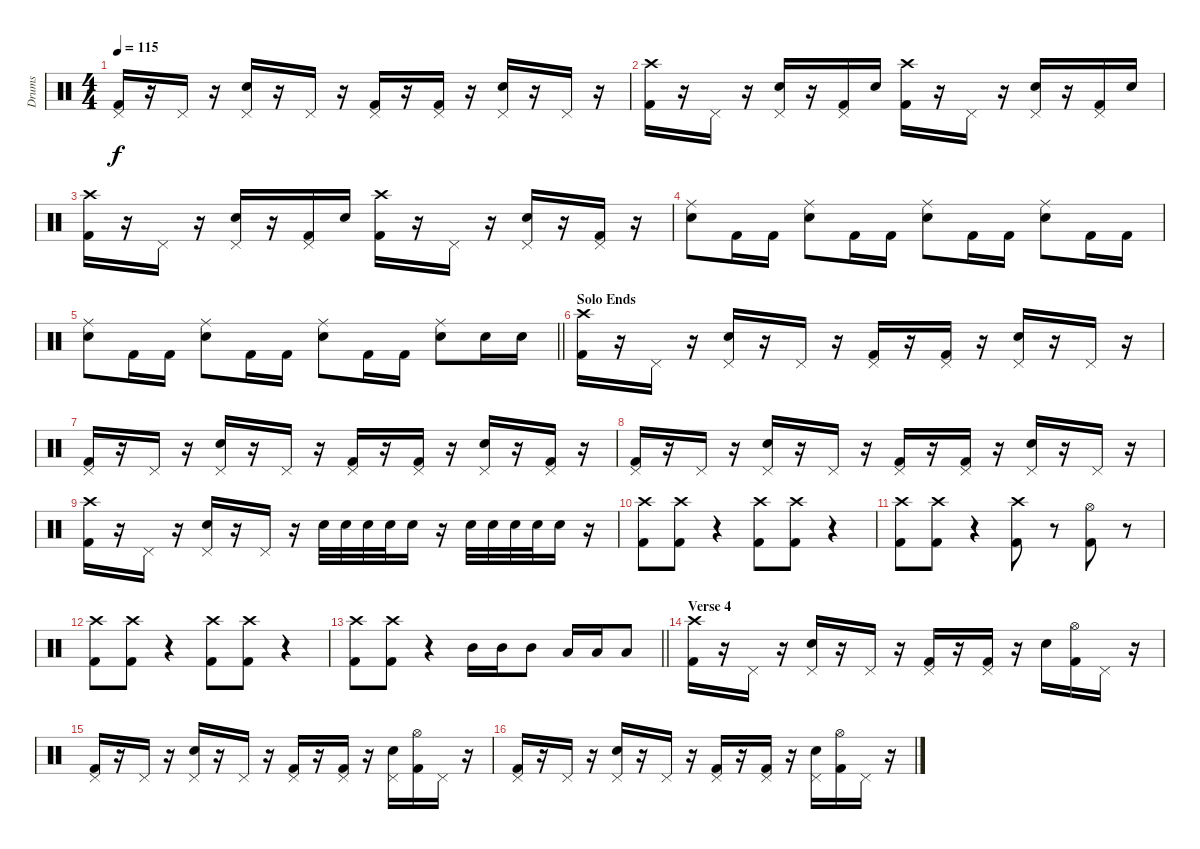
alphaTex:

\track ("Drums" "Drums") {instrument percussion}
\staff {score}
\articulation defaults
\ts (4 4)
\tempo 115
\clef neutral
\ks c
("Pedal Hi-Hat (hit)" "Kick (hit) 2").16{dy f} r.16 "Pedal Hi-Hat (hit)".16 r.16 ("Pedal Hi-Hat (hit)" "Snare (hit) 2").16 r.16 "Pedal Hi-Hat (hit)".16 r.16 ("Pedal Hi-Hat (hit)" "Kick (hit) 2").16 r.16 ("Pedal Hi-Hat (hit)" "Kick (hit) 2").16 r.16 ("Pedal Hi-Hat (hit)" "Snare (hit) 2").16 r.16 "Pedal Hi-Hat (hit)".16 r.16 |
("Crash high (hit)" "Kick (hit) 2").16 r.16 "Pedal Hi-Hat (hit)".16 r.16 ("Pedal Hi-Hat (hit)" "Snare (hit) 2").16 r.16 ("Pedal Hi-Hat (hit)" "Kick (hit) 2").16 "Snare (hit) 2".16 ("Crash high (hit)" "Kick (hit) 2").16 r.16 "Pedal Hi-Hat (hit)".16 r.16 ("Pedal Hi-Hat (hit)" "Snare (hit) 2").16 r.16 ("Pedal Hi-Hat (hit)" "Kick (hit) 2").16 "Snare (hit) 2".16 |
("Crash high (hit)" "Kick (hit) 2").16 r.16 "Pedal Hi-Hat (hit)".16 r.16 ("Pedal Hi-Hat (hit)" "Snare (hit) 2").16 r.16 ("Pedal Hi-Hat (hit)" "Kick (hit) 2").16 "Snare (hit) 2".16 ("Crash high (hit)" "Kick (hit) 2").16 r.16 "Pedal Hi-Hat (hit)".16 r.16 ("Pedal Hi-Hat (hit)" "Snare (hit) 2").16 r.16 ("Pedal Hi-Hat (hit)" "Kick (hit) 2").16 r.16 |
("Ride (middle)" "Snare (hit) 2").8 "Kick (hit) 2".16 "Kick (hit) 2".16 ("Ride (middle)" "Snare (hit) 2").8 "Kick (hit) 2".16 "Kick (hit) 2".16 ("Ride (middle)" "Snare (hit) 2").8 "Kick (hit) 2".16 "Kick (hit) 2".16 ("Ride (middle)" "Snare (hit) 2").8 "Kick (hit) 2".16 "Kick (hit) 2".16 |
\barLineRight lightlight
("Ride (middle)" "Snare (hit) 2").8 "Kick (hit) 2".16 "Kick (hit) 2".16 ("Ride (middle)" "Snare (hit) 2").8 "Kick (hit) 2".16 "Kick (hit) 2".16 ("Ride (middle)" "Snare (hit) 2").8 "Kick (hit) 2".16 "Kick (hit) 2".16 ("Ride (middle)" "Snare (hit) 2").8 "Snare (hit) 2".16 "Snare (hit) 2".16 |
\section ("" "Solo Ends")
("Crash high (hit)" "Kick (hit) 2").16 r.16 "Pedal Hi-Hat (hit)".16 r.16 ("Pedal Hi-Hat (hit)" "Snare (hit) 2").16 r.16 "Pedal Hi-Hat (hit)".16 r.16 ("Pedal Hi-Hat (hit)" "Kick (hit) 2").16 r.16 ("Pedal Hi-Hat (hit)" "Kick (hit) 2").16 r.16 ("Pedal Hi-Hat (hit)" "Snare (hit) 2").16 r.16 "Pedal Hi-Hat (hit)".16 r.16 |
("Pedal Hi-Hat (hit)" "Kick (hit) 2").16 r.16 "Pedal Hi-Hat (hit)".16 r.16 ("Pedal Hi-Hat (hit)" "Snare (hit) 2").16 r.16 "Pedal Hi-Hat (hit)".16 r.16 ("Pedal Hi-Hat (hit)" "Kick (hit) 2").16 r.16 ("Pedal Hi-Hat (hit)" "Kick (hit) 2").16 r.16 ("Pedal Hi-Hat (hit)" "Snare (hit) 2").16 r.16 ("Pedal Hi-Hat (hit)" "Kick (hit) 2").16 r.16 |
("Pedal Hi-Hat (hit)" "Kick (hit) 2").16 r.16 "Pedal Hi-Hat (hit)".16 r.16 ("Pedal Hi-Hat (hit)" "Snare (hit) 2").16 r.16 "Pedal Hi-Hat (hit)".16 r.16 ("Pedal Hi-Hat (hit)" "Kick (hit) 2").16 r.16 ("Pedal Hi-Hat (hit)" "Kick (hit) 2").16 r.16 ("Pedal Hi-Hat (hit)" "Snare (hit) 2").16 r.16 "Pedal Hi-Hat (hit)".16 r.16 |
("Crash high (hit)" "Kick (hit) 2").16 r.16 "Pedal Hi-Hat (hit)".16 r.16 ("Pedal Hi-Hat (hit)" "Snare (hit) 2").16 r.16 "Pedal Hi-Hat (hit)".16 r.16 "Snare (hit) 2".32 "Snare (hit) 2".32 "Snare (hit) 2".32 "Snare (hit) 2".32 "Snare (hit) 2".16 r.16 "Snare (hit) 2".32 "Snare (hit) 2".32 "Snare (hit) 2".32 "Snare (hit) 2".32 "Snare (hit) 2".16 r.16 |
("Crash high (hit)" "Kick (hit) 2").8 ("Crash high (hit)" "Kick (hit) 2").8 r.4 ("Crash high (hit)" "Kick (hit) 2").8 ("Crash high (hit)" "Kick (hit) 2").8 r.4 |
("Crash high (hit)" "Kick (hit) 2").8 ("Crash high (hit)" "Kick (hit) 2").8 r.4 ("Crash high (hit)" "Kick (hit) 2").8 r.8 ("Hi-Hat (open)" "Kick (hit) 2").8 r.8 |
("Crash high (hit)" "Kick (hit) 2").8 ("Crash high (hit)" "Kick (hit) 2").8 r.4 ("Crash high (hit)" "Kick (hit) 2").8 ("Crash high (hit)" "Kick (hit) 2").8 r.4 |
\barLineRight lightlight
("Crash high (hit)" "Kick (hit) 2").8 ("Crash high (hit)" "Kick (hit) 2").8 r.4 "Mid Tom (hit)".16 "Mid Tom (hit)".16 "Mid Tom (hit)".8 "Low Tom (hit)".16 "Low Tom (hit)".16 "Low Tom (hit)".8 |
\section ("" "Verse 4")
("Crash high (hit)" "Kick (hit) 2").16 r.16 "Pedal Hi-Hat (hit)".16 r.16 ("Pedal Hi-Hat (hit)" "Snare (hit) 2").16 r.16 "Pedal Hi-Hat (hit)".16 r.16 ("Pedal Hi-Hat (hit)" "Kick (hit) 2").16 r.16 ("Pedal Hi-Hat (hit)" "Kick (hit) 2").16 r.16 "Snare (hit) 2".16 ("Hi-Hat (open)" "Kick (hit) 2").16 "Pedal Hi-Hat (hit)".16 r.16 |
("Pedal Hi-Hat (hit)" "Kick (hit) 2").16 r.16 "Pedal Hi-Hat (hit)".16 r.16 ("Pedal Hi-Hat (hit)" "Snare (hit) 2").16 r.16 "Pedal Hi-Hat (hit)".16 r.16 ("Pedal Hi-Hat (hit)" "Kick (hit) 2").16 r.16 ("Pedal Hi-Hat (hit)" "Kick (hit) 2").16 r.16 ("Pedal Hi-Hat (hit)" "Snare (hit) 2").16 ("Hi-Hat (open)" "Kick (hit) 2").16 "Pedal Hi-Hat (hit)".16 r.16 |
("Pedal Hi-Hat (hit)" "Kick (hit) 2").16 r.16 "Pedal Hi-Hat (hit)".16 r.16 ("Pedal Hi-Hat (hit)" "Snare (hit) 2").16 r.16 "Pedal Hi-Hat (hit)".16 r.16 ("Pedal Hi-Hat (hit)" "Kick (hit) 2").16 r.16 ("Pedal Hi-Hat (hit)" "Kick (hit) 2").16 r.16 ("Pedal Hi-Hat (hit)" "Snare (hit) 2").16 ("Hi-Hat (open)" "Kick (hit) 2").16 "Pedal Hi-Hat (hit)".16 r.16
